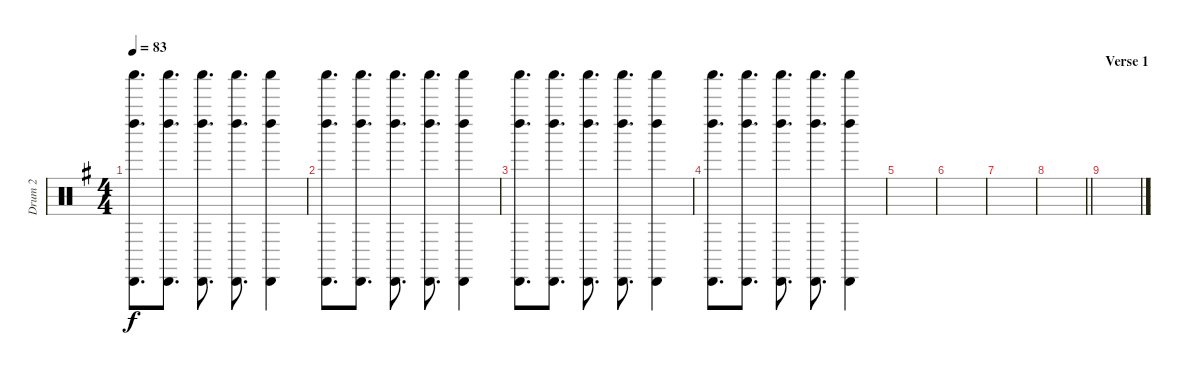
\track ("Drum 2" "Drum 2") {instrument percussion}
\staff {score}
\articulation defaults
\ts (4 4)
\tempo 83
\clef neutral
\ks eminor
("Shaker (hit)" "Cabasa (hit)" "Left Maraca (hit)").8{d dy f} ("Shaker (hit)" "Cabasa (hit)" "Left Maraca (hit)").8{d} ("Shaker (hit)" "Cabasa (hit)" "Left Maraca (hit)").8{d} ("Shaker (hit)" "Cabasa (hit)" "Left Maraca (hit)").8{d} ("Shaker (hit)" "Cabasa (hit)" "Left Maraca (hit)").4 |
("Shaker (hit)" "Cabasa (hit)" "Left Maraca (hit)").8{d} ("Shaker (hit)" "Cabasa (hit)" "Left Maraca (hit)").8{d} ("Shaker (hit)" "Cabasa (hit)" "Left Maraca (hit)").8{d} ("Shaker (hit)" "Cabasa (hit)" "Left Maraca (hit)").8{d} ("Shaker (hit)" "Cabasa (hit)" "Left Maraca (hit)").4 |
("Shaker (hit)" "Cabasa (hit)" "Left Maraca (hit)").8{d} ("Shaker (hit)" "Cabasa (hit)" "Left Maraca (hit)").8{d} ("Shaker (hit)" "Cabasa (hit)" "Left Maraca (hit)").8{d} ("Shaker (hit)" "Cabasa (hit)" "Left Maraca (hit)").8{d} ("Shaker (hit)" "Cabasa (hit)" "Left Maraca (hit)").4 |
("Shaker (hit)" "Cabasa (hit)" "Left Maraca (hit)").8{d} ("Shaker (hit)" "Cabasa (hit)" "Left Maraca (hit)").8{d} ("Shaker (hit)" "Cabasa (hit)" "Left Maraca (hit)").8{d} ("Shaker (hit)" "Cabasa (hit)" "Left Maraca (hit)").8{d} ("Shaker (hit)" "Cabasa (hit)" "Left Maraca (hit)").4 |
|
|
|
\barLineRight lightlight
|
\section ("" "Verse 1")
